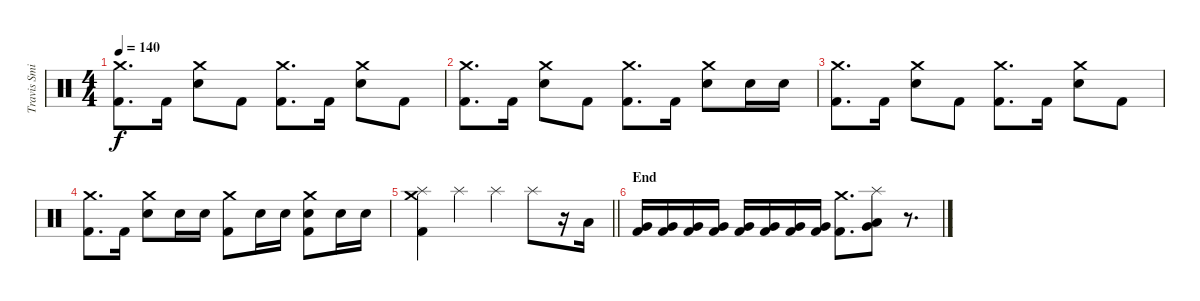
\track ("Travis Smith" "Travis Smi") {instrument percussion}
\staff {score}
\articulation defaults
\ts (4 4)
\tempo 140
\clef neutral
\ks c
("Crash medium (hit)" "Kick (hit) 2").8{d dy f} "Kick (hit) 2".16 ("Crash medium (hit)" "Electric Snare (hit)").8 "Kick (hit) 2".8 ("Crash medium (hit)" "Kick (hit) 2").8{d} "Kick (hit) 2".16 ("Crash medium (hit)" "Electric Snare (hit)").8 "Kick (hit) 2".8 |
("Crash medium (hit)" "Kick (hit) 2").8{d} "Kick (hit) 2".16 ("Crash medium (hit)" "Electric Snare (hit)").8 "Kick (hit) 2".8 ("Crash medium (hit)" "Kick (hit) 2").8{d} "Kick (hit) 2".16 ("Crash medium (hit)" "Electric Snare (hit)").8 "Electric Snare (hit)".16 "Electric Snare (hit)".16 |
("Crash medium (hit)" "Kick (hit) 2").8{d} "Kick (hit) 2".16 ("Crash medium (hit)" "Electric Snare (hit)").8 "Kick (hit) 2".8 ("Crash medium (hit)" "Kick (hit) 2").8{d} "Kick (hit) 2".16 ("Crash medium (hit)" "Electric Snare (hit)").8 "Kick (hit) 2".8 |
("Crash medium (hit)" "Kick (hit) 2").8{d} "Kick (hit) 2".16 ("Crash medium (hit)" "Electric Snare (hit)").8 "Electric Snare (hit)".16 "Electric Snare (hit)".16 ("Crash medium (hit)" "Kick (hit) 2").8 "Electric Snare (hit)".16 "Electric Snare (hit)".16 ("Crash medium (hit)" "Electric Snare (hit)" "Kick (hit) 2").8 "Electric Snare (hit)".16 "Electric Snare (hit)".16 |
\barLineRight lightlight
("Splash (hit)" "Crash medium (hit)" "Kick (hit) 2").4 "Splash (hit)".4 "Splash (hit)".4 "Splash (hit)".8 r.16 "Low Tom (hit)".16 |
\section ("" "End")
("Very Low Tom (hit)" "Kick (hit) 2").16 ("Very Low Tom (hit)" "Kick (hit) 2").16 ("Very Low Tom (hit)" "Kick (hit) 2").16 ("Very Low Tom (hit)" "Kick (hit) 2").16 ("Very Low Tom (hit)" "Kick (hit) 2").16 ("Very Low Tom (hit)" "Kick (hit) 2").16 ("Very Low Tom (hit)" "Kick (hit) 2").16 ("Very Low Tom (hit)" "Kick (hit) 2").16 ("Crash medium (hit)" "Kick (hit) 2").8{d} ("Splash (hit)" "Low Tom (hit)" "Very Low Tom (hit)").8 r.8{d}
